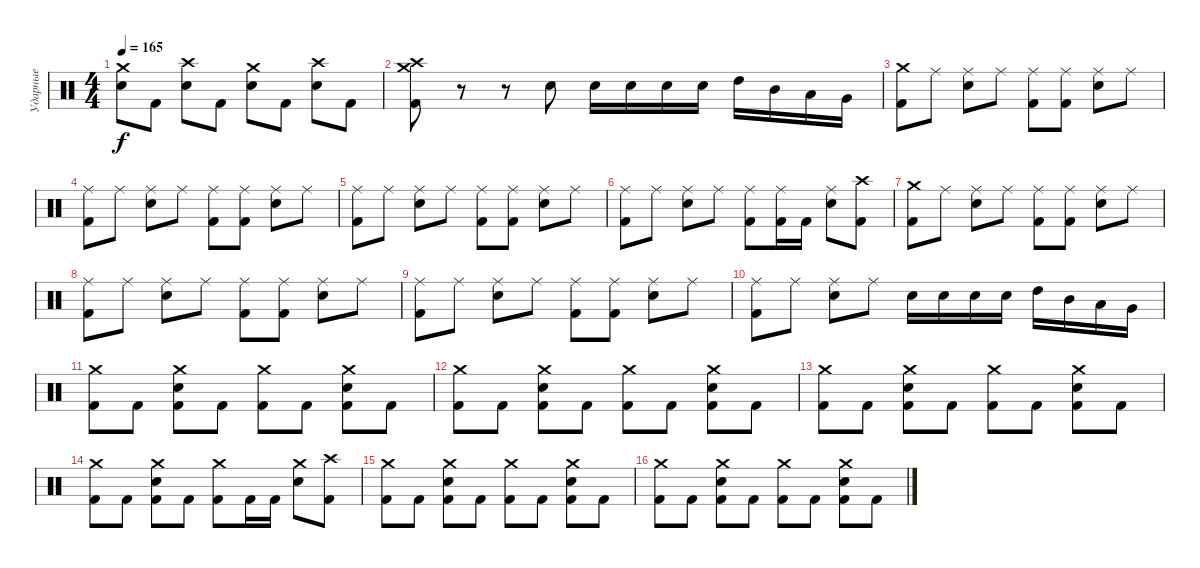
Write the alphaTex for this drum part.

\track ("Ударные" "Ударные") {instrument percussion}
\staff {score}
\articulation defaults
\ts (4 4)
\tempo 165
\clef neutral
\ks c
("Crash medium (hit)" "Electric Snare (hit)").8{dy f} "Kick (hit) 2".8 ("Crash high (hit)" "Electric Snare (hit)").8 "Kick (hit) 2".8 ("Crash medium (hit)" "Electric Snare (hit)").8 "Kick (hit) 2".8 ("Crash high (hit)" "Electric Snare (hit)").8 "Kick (hit) 2".8 |
("Crash medium (hit)" "Crash high (hit)" "Kick (hit) 2").8 r.8 r.8 "Electric Snare (hit)".8 "Electric Snare (hit)".16 "Electric Snare (hit)".16 "Electric Snare (hit)".16 "Electric Snare (hit)".16 "High Tom (hit)".16 "Mid Tom (hit)".16 "Low Tom (hit)".16 "Very Low Tom (hit)".16 |
("Crash medium (hit)" "Kick (hit) 2").8 "Ride (middle)".8 ("Ride (middle)" "Electric Snare (hit)").8 "Ride (middle)".8 ("Ride (middle)" "Kick (hit) 2").8 ("Ride (middle)" "Kick (hit) 2").8 ("Ride (middle)" "Electric Snare (hit)").8 "Ride (middle)".8 |
("Ride (middle)" "Kick (hit) 2").8 "Ride (middle)".8 ("Ride (middle)" "Electric Snare (hit)").8 "Ride (middle)".8 ("Ride (middle)" "Kick (hit) 2").8 ("Ride (middle)" "Kick (hit) 2").8 ("Ride (middle)" "Electric Snare (hit)").8 "Ride (middle)".8 |
("Ride (middle)" "Kick (hit) 2").8 "Ride (middle)".8 ("Ride (middle)" "Electric Snare (hit)").8 "Ride (middle)".8 ("Ride (middle)" "Kick (hit) 2").8 ("Ride (middle)" "Kick (hit) 2").8 ("Ride (middle)" "Electric Snare (hit)").8 "Ride (middle)".8 |
("Ride (middle)" "Kick (hit) 2").8 "Ride (middle)".8 ("Ride (middle)" "Electric Snare (hit)").8 "Ride (middle)".8 ("Ride (middle)" "Kick (hit) 2").8 ("Ride (middle)" "Kick (hit) 2").16 "Kick (hit) 2".16 ("Ride (middle)" "Electric Snare (hit)").8 ("Crash high (hit)" "Kick (hit) 2").8 |
("Crash medium (hit)" "Kick (hit) 2").8 "Ride (middle)".8 ("Ride (middle)" "Electric Snare (hit)").8 "Ride (middle)".8 ("Ride (middle)" "Kick (hit) 2").8 ("Ride (middle)" "Kick (hit) 2").8 ("Ride (middle)" "Electric Snare (hit)").8 "Ride (middle)".8 |
("Ride (middle)" "Kick (hit) 2").8 "Ride (middle)".8 ("Ride (middle)" "Electric Snare (hit)").8 "Ride (middle)".8 ("Ride (middle)" "Kick (hit) 2").8 ("Ride (middle)" "Kick (hit) 2").8 ("Ride (middle)" "Electric Snare (hit)").8 "Ride (middle)".8 |
("Ride (middle)" "Kick (hit) 2").8 "Ride (middle)".8 ("Ride (middle)" "Electric Snare (hit)").8 "Ride (middle)".8 ("Ride (middle)" "Kick (hit) 2").8 ("Ride (middle)" "Kick (hit) 2").8 ("Ride (middle)" "Electric Snare (hit)").8 "Ride (middle)".8 |
("Ride (middle)" "Kick (hit) 2").8 "Ride (middle)".8 ("Ride (middle)" "Electric Snare (hit)").8 "Ride (middle)".8 "Electric Snare (hit)".16 "Electric Snare (hit)".16 "Electric Snare (hit)".16 "Electric Snare (hit)".16 "High Tom (hit)".16 "Mid Tom (hit)".16 "Low Tom (hit)".16 "Very Low Tom (hit)".16 |
("Crash medium (hit)" "Kick (hit) 2").8 "Kick (hit) 2".8 ("Crash medium (hit)" "Electric Snare (hit)" "Kick (hit) 2").8 "Kick (hit) 2".8 ("Crash medium (hit)" "Kick (hit) 2").8 "Kick (hit) 2".8 ("Crash medium (hit)" "Electric Snare (hit)" "Kick (hit) 2").8 "Kick (hit) 2".8 |
("Crash medium (hit)" "Kick (hit) 2").8 "Kick (hit) 2".8 ("Crash medium (hit)" "Electric Snare (hit)" "Kick (hit) 2").8 "Kick (hit) 2".8 ("Crash medium (hit)" "Kick (hit) 2").8 "Kick (hit) 2".8 ("Crash medium (hit)" "Electric Snare (hit)" "Kick (hit) 2").8 "Kick (hit) 2".8 |
("Crash medium (hit)" "Kick (hit) 2").8 "Kick (hit) 2".8 ("Crash medium (hit)" "Electric Snare (hit)" "Kick (hit) 2").8 "Kick (hit) 2".8 ("Crash medium (hit)" "Kick (hit) 2").8 "Kick (hit) 2".8 ("Crash medium (hit)" "Electric Snare (hit)" "Kick (hit) 2").8 "Kick (hit) 2".8 |
("Crash medium (hit)" "Kick (hit) 2").8 "Kick (hit) 2".8 ("Crash medium (hit)" "Electric Snare (hit)" "Kick (hit) 2").8 "Kick (hit) 2".8 ("Crash medium (hit)" "Kick (hit) 2").8 "Kick (hit) 2".16 "Kick (hit) 2".16 ("Crash medium (hit)" "Electric Snare (hit)").8 ("Crash high (hit)" "Kick (hit) 2").8 |
("Crash medium (hit)" "Kick (hit) 2").8 "Kick (hit) 2".8 ("Crash medium (hit)" "Electric Snare (hit)" "Kick (hit) 2").8 "Kick (hit) 2".8 ("Crash medium (hit)" "Kick (hit) 2").8 "Kick (hit) 2".8 ("Crash medium (hit)" "Electric Snare (hit)" "Kick (hit) 2").8 "Kick (hit) 2".8 |
("Crash medium (hit)" "Kick (hit) 2").8 "Kick (hit) 2".8 ("Crash medium (hit)" "Electric Snare (hit)" "Kick (hit) 2").8 "Kick (hit) 2".8 ("Crash medium (hit)" "Kick (hit) 2").8 "Kick (hit) 2".8 ("Crash medium (hit)" "Electric Snare (hit)" "Kick (hit) 2").8 "Kick (hit) 2".8
